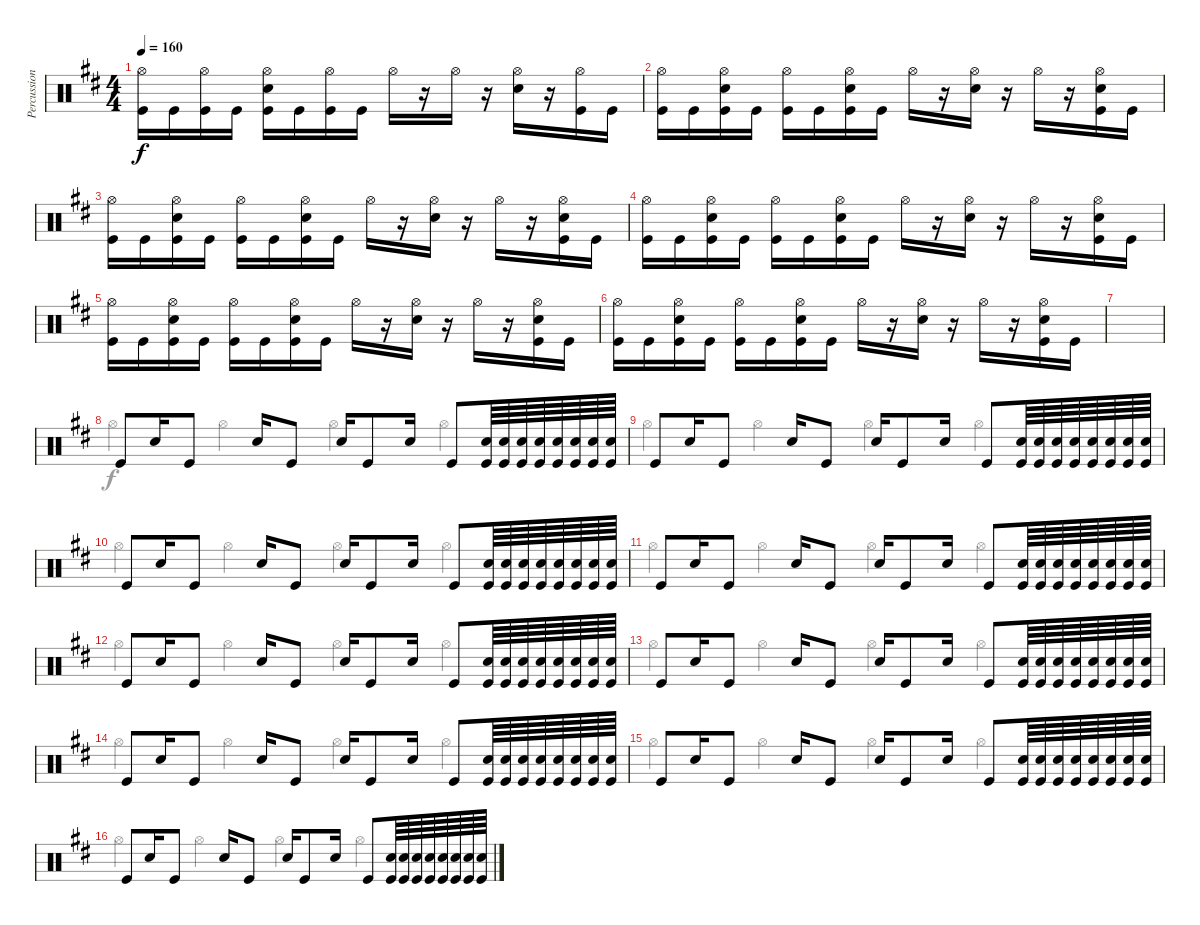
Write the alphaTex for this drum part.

\track ("Percussion" "Percussion") {instrument percussion}
\staff {score}
\articulation defaults
\voice
\ts (4 4)
\tempo 160
\clef neutral
\ks bminor
("Hi-Hat (open)" "Kick (hit)").16{dy f} "Kick (hit)".16 ("Hi-Hat (open)" "Kick (hit)").16 "Kick (hit)".16 ("Hi-Hat (open)" "Snare (hit) 2" "Kick (hit)").16 "Kick (hit)".16 ("Hi-Hat (open)" "Kick (hit)").16 "Kick (hit)".16 "Hi-Hat (open)".16 r.16 "Hi-Hat (open)".16 r.16 ("Hi-Hat (open)" "Snare (hit) 2").16 r.16 ("Hi-Hat (open)" "Kick (hit)").16 "Kick (hit)".16 |
("Hi-Hat (open)" "Kick (hit)").16 "Kick (hit)".16 ("Hi-Hat (open)" "Snare (hit) 2" "Kick (hit)").16 "Kick (hit)".16 ("Hi-Hat (open)" "Kick (hit)").16 "Kick (hit)".16 ("Hi-Hat (open)" "Snare (hit) 2" "Kick (hit)").16 "Kick (hit)".16 "Hi-Hat (open)".16 r.16 ("Hi-Hat (open)" "Snare (hit) 2").16 r.16 "Hi-Hat (open)".16 r.16 ("Hi-Hat (open)" "Snare (hit) 2" "Kick (hit)").16 "Kick (hit)".16 |
("Hi-Hat (open)" "Kick (hit)").16 "Kick (hit)".16 ("Hi-Hat (open)" "Snare (hit) 2" "Kick (hit)").16 "Kick (hit)".16 ("Hi-Hat (open)" "Kick (hit)").16 "Kick (hit)".16 ("Hi-Hat (open)" "Snare (hit) 2" "Kick (hit)").16 "Kick (hit)".16 "Hi-Hat (open)".16 r.16 ("Hi-Hat (open)" "Snare (hit) 2").16 r.16 "Hi-Hat (open)".16 r.16 ("Hi-Hat (open)" "Snare (hit) 2" "Kick (hit)").16 "Kick (hit)".16 |
("Hi-Hat (open)" "Kick (hit)").16 "Kick (hit)".16 ("Hi-Hat (open)" "Snare (hit) 2" "Kick (hit)").16 "Kick (hit)".16 ("Hi-Hat (open)" "Kick (hit)").16 "Kick (hit)".16 ("Hi-Hat (open)" "Snare (hit) 2" "Kick (hit)").16 "Kick (hit)".16 "Hi-Hat (open)".16 r.16 ("Hi-Hat (open)" "Snare (hit) 2").16 r.16 "Hi-Hat (open)".16 r.16 ("Hi-Hat (open)" "Snare (hit) 2" "Kick (hit)").16 "Kick (hit)".16 |
("Hi-Hat (open)" "Kick (hit)").16 "Kick (hit)".16 ("Hi-Hat (open)" "Snare (hit) 2" "Kick (hit)").16 "Kick (hit)".16 ("Hi-Hat (open)" "Kick (hit)").16 "Kick (hit)".16 ("Hi-Hat (open)" "Snare (hit) 2" "Kick (hit)").16 "Kick (hit)".16 "Hi-Hat (open)".16 r.16 ("Hi-Hat (open)" "Snare (hit) 2").16 r.16 "Hi-Hat (open)".16 r.16 ("Hi-Hat (open)" "Snare (hit) 2" "Kick (hit)").16 "Kick (hit)".16 |
("Hi-Hat (open)" "Kick (hit)").16 "Kick (hit)".16 ("Hi-Hat (open)" "Snare (hit) 2" "Kick (hit)").16 "Kick (hit)".16 ("Hi-Hat (open)" "Kick (hit)").16 "Kick (hit)".16 ("Hi-Hat (open)" "Snare (hit) 2" "Kick (hit)").16 "Kick (hit)".16 "Hi-Hat (open)".16 r.16 ("Hi-Hat (open)" "Snare (hit) 2").16 r.16 "Hi-Hat (open)".16 r.16 ("Hi-Hat (open)" "Snare (hit) 2" "Kick (hit)").16 "Kick (hit)".16 |
|
"Kick (hit)".8 "Snare (hit) 2".16 "Kick (hit)".8 "Snare (hit) 2".16 "Kick (hit)".8 "Snare (hit) 2".16 "Kick (hit)".8 "Snare (hit) 2".16 "Kick (hit)".8 ("Snare (hit) 2" "Kick (hit)").64 ("Snare (hit) 2" "Kick (hit)").64 ("Snare (hit) 2" "Kick (hit)").64 ("Snare (hit) 2" "Kick (hit)").64 ("Snare (hit) 2" "Kick (hit)").64 ("Snare (hit) 2" "Kick (hit)").64 ("Snare (hit) 2" "Kick (hit)").64 ("Snare (hit) 2" "Kick (hit)").64 |
"Kick (hit)".8 "Snare (hit) 2".16 "Kick (hit)".8 "Snare (hit) 2".16 "Kick (hit)".8 "Snare (hit) 2".16 "Kick (hit)".8 "Snare (hit) 2".16 "Kick (hit)".8 ("Snare (hit) 2" "Kick (hit)").64 ("Snare (hit) 2" "Kick (hit)").64 ("Snare (hit) 2" "Kick (hit)").64 ("Snare (hit) 2" "Kick (hit)").64 ("Snare (hit) 2" "Kick (hit)").64 ("Snare (hit) 2" "Kick (hit)").64 ("Snare (hit) 2" "Kick (hit)").64 ("Snare (hit) 2" "Kick (hit)").64 |
"Kick (hit)".8 "Snare (hit) 2".16 "Kick (hit)".8 "Snare (hit) 2".16 "Kick (hit)".8 "Snare (hit) 2".16 "Kick (hit)".8 "Snare (hit) 2".16 "Kick (hit)".8 ("Snare (hit) 2" "Kick (hit)").64 ("Snare (hit) 2" "Kick (hit)").64 ("Snare (hit) 2" "Kick (hit)").64 ("Snare (hit) 2" "Kick (hit)").64 ("Snare (hit) 2" "Kick (hit)").64 ("Snare (hit) 2" "Kick (hit)").64 ("Snare (hit) 2" "Kick (hit)").64 ("Snare (hit) 2" "Kick (hit)").64 |
"Kick (hit)".8 "Snare (hit) 2".16 "Kick (hit)".8 "Snare (hit) 2".16 "Kick (hit)".8 "Snare (hit) 2".16 "Kick (hit)".8 "Snare (hit) 2".16 "Kick (hit)".8 ("Snare (hit) 2" "Kick (hit)").64 ("Snare (hit) 2" "Kick (hit)").64 ("Snare (hit) 2" "Kick (hit)").64 ("Snare (hit) 2" "Kick (hit)").64 ("Snare (hit) 2" "Kick (hit)").64 ("Snare (hit) 2" "Kick (hit)").64 ("Snare (hit) 2" "Kick (hit)").64 ("Snare (hit) 2" "Kick (hit)").64 |
"Kick (hit)".8 "Snare (hit) 2".16 "Kick (hit)".8 "Snare (hit) 2".16 "Kick (hit)".8 "Snare (hit) 2".16 "Kick (hit)".8 "Snare (hit) 2".16 "Kick (hit)".8 ("Snare (hit) 2" "Kick (hit)").64 ("Snare (hit) 2" "Kick (hit)").64 ("Snare (hit) 2" "Kick (hit)").64 ("Snare (hit) 2" "Kick (hit)").64 ("Snare (hit) 2" "Kick (hit)").64 ("Snare (hit) 2" "Kick (hit)").64 ("Snare (hit) 2" "Kick (hit)").64 ("Snare (hit) 2" "Kick (hit)").64 |
"Kick (hit)".8 "Snare (hit) 2".16 "Kick (hit)".8 "Snare (hit) 2".16 "Kick (hit)".8 "Snare (hit) 2".16 "Kick (hit)".8 "Snare (hit) 2".16 "Kick (hit)".8 ("Snare (hit) 2" "Kick (hit)").64 ("Snare (hit) 2" "Kick (hit)").64 ("Snare (hit) 2" "Kick (hit)").64 ("Snare (hit) 2" "Kick (hit)").64 ("Snare (hit) 2" "Kick (hit)").64 ("Snare (hit) 2" "Kick (hit)").64 ("Snare (hit) 2" "Kick (hit)").64 ("Snare (hit) 2" "Kick (hit)").64 |
"Kick (hit)".8 "Snare (hit) 2".16 "Kick (hit)".8 "Snare (hit) 2".16 "Kick (hit)".8 "Snare (hit) 2".16 "Kick (hit)".8 "Snare (hit) 2".16 "Kick (hit)".8 ("Snare (hit) 2" "Kick (hit)").64 ("Snare (hit) 2" "Kick (hit)").64 ("Snare (hit) 2" "Kick (hit)").64 ("Snare (hit) 2" "Kick (hit)").64 ("Snare (hit) 2" "Kick (hit)").64 ("Snare (hit) 2" "Kick (hit)").64 ("Snare (hit) 2" "Kick (hit)").64 ("Snare (hit) 2" "Kick (hit)").64 |
"Kick (hit)".8 "Snare (hit) 2".16 "Kick (hit)".8 "Snare (hit) 2".16 "Kick (hit)".8 "Snare (hit) 2".16 "Kick (hit)".8 "Snare (hit) 2".16 "Kick (hit)".8 ("Snare (hit) 2" "Kick (hit)").64 ("Snare (hit) 2" "Kick (hit)").64 ("Snare (hit) 2" "Kick (hit)").64 ("Snare (hit) 2" "Kick (hit)").64 ("Snare (hit) 2" "Kick (hit)").64 ("Snare (hit) 2" "Kick (hit)").64 ("Snare (hit) 2" "Kick (hit)").64 ("Snare (hit) 2" "Kick (hit)").64 |
"Kick (hit)".8 "Snare (hit) 2".16 "Kick (hit)".8 "Snare (hit) 2".16 "Kick (hit)".8 "Snare (hit) 2".16 "Kick (hit)".8 "Snare (hit) 2".16 "Kick (hit)".8 ("Snare (hit) 2" "Kick (hit)").64 ("Snare (hit) 2" "Kick (hit)").64 ("Snare (hit) 2" "Kick (hit)").64 ("Snare (hit) 2" "Kick (hit)").64 ("Snare (hit) 2" "Kick (hit)").64 ("Snare (hit) 2" "Kick (hit)").64 ("Snare (hit) 2" "Kick (hit)").64 ("Snare (hit) 2" "Kick (hit)").64
\voice
\clef neutral
\ottava regular
\simile none
\ks bminor
|
|
|
|
|
|
|
"Hi-Hat (open)".4 "Hi-Hat (open)".4 "Hi-Hat (open)".4 "Hi-Hat (open)".4 |
"Hi-Hat (open)".4 "Hi-Hat (open)".4 "Hi-Hat (open)".4 "Hi-Hat (open)".4 |
"Hi-Hat (open)".4 "Hi-Hat (open)".4 "Hi-Hat (open)".4 "Hi-Hat (open)".4 |
"Hi-Hat (open)".4 "Hi-Hat (open)".4 "Hi-Hat (open)".4 "Hi-Hat (open)".4 |
"Hi-Hat (open)".4 "Hi-Hat (open)".4 "Hi-Hat (open)".4 "Hi-Hat (open)".4 |
"Hi-Hat (open)".4 "Hi-Hat (open)".4 "Hi-Hat (open)".4 "Hi-Hat (open)".4 |
"Hi-Hat (open)".4 "Hi-Hat (open)".4 "Hi-Hat (open)".4 "Hi-Hat (open)".4 |
"Hi-Hat (open)".4 "Hi-Hat (open)".4 "Hi-Hat (open)".4 "Hi-Hat (open)".4 |
"Hi-Hat (open)".4 "Hi-Hat (open)".4 "Hi-Hat (open)".4 "Hi-Hat (open)".4
